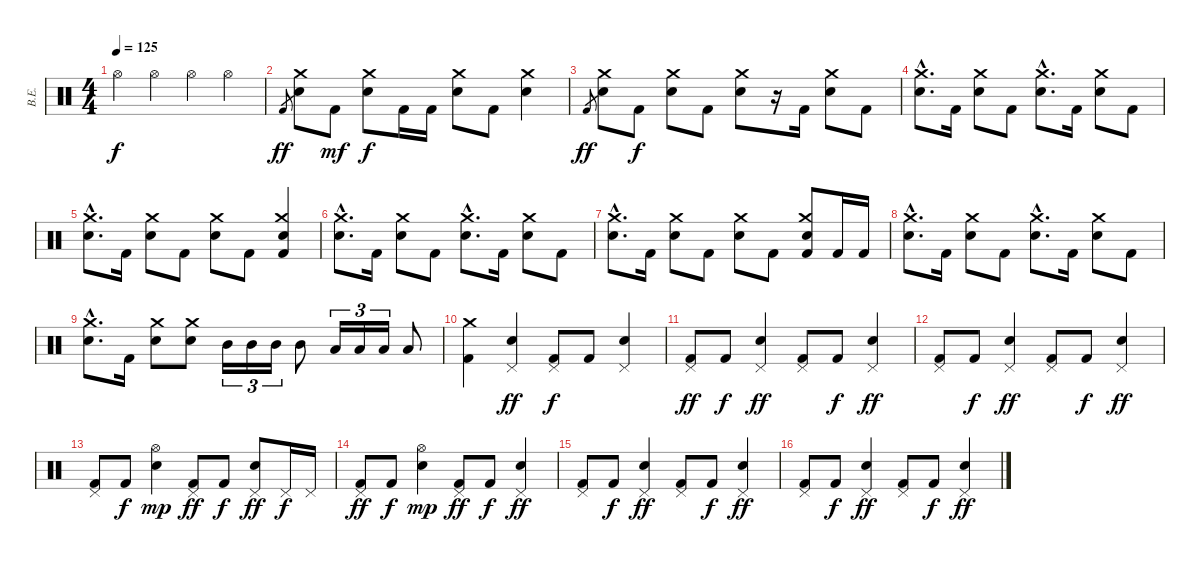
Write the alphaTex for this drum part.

\track ("В.Е." "В.Е.") {instrument percussion}
\staff {score}
\articulation defaults
\ts (4 4)
\tempo 125
\clef neutral
\ks c "Hi-Hat (open)".4{dy f} "Hi-Hat (open)".4 "Hi-Hat (open)".4 "Hi-Hat (open)".4
|
"Kick (hit) 2".8{gr dy ff} ("Crash medium (hit)" "Electric Snare (hit)").8 "Kick (hit) 2".8{dy mf} ("Crash medium (hit)" "Electric Snare (hit)").8{dy f} "Kick (hit) 2".16 "Kick (hit) 2".16 ("Crash medium (hit)" "Electric Snare (hit)").8 "Kick (hit) 2".8 ("Crash medium (hit)" "Electric Snare (hit)").4 |
"Kick (hit) 2".8{gr dy ff} ("Crash medium (hit)" "Electric Snare (hit)").8 "Kick (hit) 2".8{dy f} ("Crash medium (hit)" "Electric Snare (hit)").8 "Kick (hit) 2".8 ("Crash medium (hit)" "Electric Snare (hit)").8 r.16 "Kick (hit) 2".16 ("Crash medium (hit)" "Electric Snare (hit)").8 "Kick (hit) 2".8 |
("Crash medium (hit)"{hac} "Electric Snare (hit)"{hac}).8{d} "Kick (hit) 2".16 ("Crash medium (hit)" "Electric Snare (hit)").8 "Kick (hit) 2".8 ("Crash medium (hit)"{hac} "Electric Snare (hit)"{hac}).8{d} "Kick (hit) 2".16 ("Crash medium (hit)" "Electric Snare (hit)").8 "Kick (hit) 2".8 |
("Crash medium (hit)"{hac} "Electric Snare (hit)"{hac}).8{d} "Kick (hit) 2".16 ("Crash medium (hit)" "Electric Snare (hit)").8 "Kick (hit) 2".8 ("Crash medium (hit)" "Electric Snare (hit)").8 "Kick (hit) 2".8 ("Crash medium (hit)" "Kick (hit) 2" "Electric Snare (hit)").4 |
("Crash medium (hit)"{hac} "Electric Snare (hit)"{hac}).8{d} "Kick (hit) 2".16 ("Crash medium (hit)" "Electric Snare (hit)").8 "Kick (hit) 2".8 ("Crash medium (hit)"{hac} "Electric Snare (hit)"{hac}).8{d} "Kick (hit) 2".16 ("Crash medium (hit)" "Electric Snare (hit)").8 "Kick (hit) 2".8 |
("Crash medium (hit)"{hac} "Electric Snare (hit)"{hac}).8{d} "Kick (hit) 2".16 ("Crash medium (hit)" "Electric Snare (hit)").8 "Kick (hit) 2".8 ("Crash medium (hit)" "Electric Snare (hit)").8 "Kick (hit) 2".8 ("Crash medium (hit)" "Kick (hit) 2" "Electric Snare (hit)").8 "Kick (hit) 2".16 "Kick (hit) 2".16 |
("Crash medium (hit)"{hac} "Electric Snare (hit)"{hac}).8{d} "Kick (hit) 2".16 ("Crash medium (hit)" "Electric Snare (hit)").8 "Kick (hit) 2".8 ("Crash medium (hit)"{hac} "Electric Snare (hit)"{hac}).8{d} "Kick (hit) 2".16 ("Crash medium (hit)" "Electric Snare (hit)").8 "Kick (hit) 2".8 |
("Crash medium (hit)"{hac} "Electric Snare (hit)"{hac}).8{d} "Kick (hit) 2".16 ("Crash medium (hit)" "Electric Snare (hit)").8 ("Crash medium (hit)" "Electric Snare (hit)").8 "Mid Tom (hit)".16{tu (3 2)} "Mid Tom (hit)".16{tu (3 2)} "Mid Tom (hit)".16{tu (3 2)} "Mid Tom (hit)".8 "Low Tom (hit)".16{tu (3 2)} "Low Tom (hit)".16{tu (3 2)} "Low Tom (hit)".16{tu (3 2)} "Low Tom (hit)".8 |
("Crash medium (hit)" "Kick (hit) 2").4 ("Pedal Hi-Hat (hit)" "Electric Snare (hit)").4{dy ff} ("Pedal Hi-Hat (hit)" "Kick (hit) 2").8{dy f} "Kick (hit) 2".8 ("Pedal Hi-Hat (hit)" "Electric Snare (hit)").4 |
("Pedal Hi-Hat (hit)" "Kick (hit) 2").8{dy ff} "Kick (hit) 2".8{dy f} ("Pedal Hi-Hat (hit)" "Electric Snare (hit)").4{dy ff} ("Pedal Hi-Hat (hit)" "Kick (hit) 2").8 "Kick (hit) 2".8{dy f} ("Pedal Hi-Hat (hit)" "Electric Snare (hit)").4{dy ff} |
("Pedal Hi-Hat (hit)" "Kick (hit) 2").8 "Kick (hit) 2".8{dy f} ("Pedal Hi-Hat (hit)" "Electric Snare (hit)").4{dy ff} ("Pedal Hi-Hat (hit)" "Kick (hit) 2").8 "Kick (hit) 2".8{dy f} ("Pedal Hi-Hat (hit)" "Electric Snare (hit)").4{dy ff} |
("Pedal Hi-Hat (hit)" "Kick (hit) 2").8 "Kick (hit) 2".8{dy f} ("Hi-Hat (open)" "Electric Snare (hit)").4{dy mp} ("Pedal Hi-Hat (hit)" "Kick (hit) 2").8{dy ff} "Kick (hit) 2".8{dy f} ("Pedal Hi-Hat (hit)" "Electric Snare (hit)").8{dy ff} "Pedal Hi-Hat (hit)".16{dy f} "Pedal Hi-Hat (hit)".16 |
("Pedal Hi-Hat (hit)" "Kick (hit) 2").8{dy ff} "Kick (hit) 2".8{dy f} ("Hi-Hat (open)" "Electric Snare (hit)").4{dy mp} ("Pedal Hi-Hat (hit)" "Kick (hit) 2").8{dy ff} "Kick (hit) 2".8{dy f} ("Pedal Hi-Hat (hit)" "Electric Snare (hit)").4{dy ff} |
("Pedal Hi-Hat (hit)" "Kick (hit) 2").8 "Kick (hit) 2".8{dy f} ("Pedal Hi-Hat (hit)" "Electric Snare (hit)").4{dy ff} ("Pedal Hi-Hat (hit)" "Kick (hit) 2").8 "Kick (hit) 2".8{dy f} ("Pedal Hi-Hat (hit)" "Electric Snare (hit)").4{dy ff} |
("Pedal Hi-Hat (hit)" "Kick (hit) 2").8 "Kick (hit) 2".8{dy f} ("Pedal Hi-Hat (hit)" "Electric Snare (hit)").4{dy ff} ("Pedal Hi-Hat (hit)" "Kick (hit) 2").8 "Kick (hit) 2".8{dy f} ("Pedal Hi-Hat (hit)" "Electric Snare (hit)").4{dy ff}
